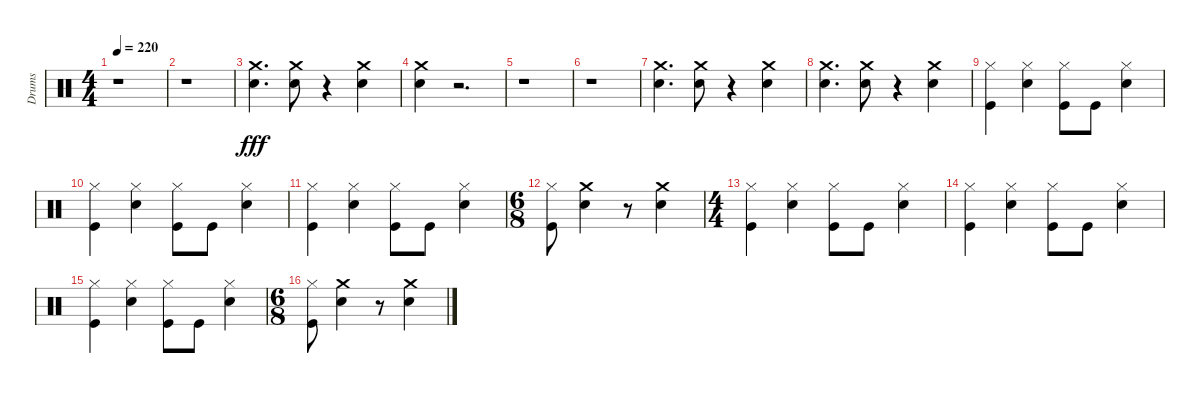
\track ("Drums" "Drums") {instrument percussion}
\staff {score}
\articulation defaults
\ts (4 4)
\tempo 220
\clef neutral
\ks c
r.1{dy fff} |
r.1 |
("Snare (hit) 2" "Crash medium (hit)").4{d} ("Snare (hit) 2" "Crash medium (hit)").8 r.4 ("Crash medium (hit)" "Snare (hit) 2").4 |
("Snare (hit) 2" "Crash medium (hit)").4 r.2{d} |
r.1 |
r.1 |
("Snare (hit) 2" "Crash medium (hit)").4{d} ("Snare (hit) 2" "Crash medium (hit)").8 r.4 ("Snare (hit) 2" "Crash medium (hit)").4 |
("Snare (hit) 2" "Crash medium (hit)").4{d} ("Snare (hit) 2" "Crash medium (hit)").8 r.4 ("Snare (hit) 2" "Crash medium (hit)").4 |
("Kick (hit)" "Hi-Hat (closed)").4 ("Hi-Hat (closed)" "Snare (hit) 2").4 ("Kick (hit)" "Hi-Hat (closed)").8 "Kick (hit)".8 ("Snare (hit) 2" "Hi-Hat (closed)").4 |
("Kick (hit)" "Hi-Hat (closed)").4 ("Snare (hit) 2" "Hi-Hat (closed)").4 ("Kick (hit)" "Hi-Hat (closed)").8 "Kick (hit)".8 ("Hi-Hat (closed)" "Snare (hit) 2").4 |
("Kick (hit)" "Hi-Hat (closed)").4 ("Snare (hit) 2" "Hi-Hat (closed)").4 ("Kick (hit)" "Hi-Hat (closed)").8 "Kick (hit)".8 ("Snare (hit) 2" "Hi-Hat (closed)").4 |
\ts (6 8)
("Hi-Hat (closed)" "Kick (hit)").8 ("Snare (hit) 2" "Crash medium (hit)").4 r.8 ("Snare (hit) 2" "Crash medium (hit)").4 |
\ts (4 4)
("Kick (hit)" "Hi-Hat (closed)").4 ("Snare (hit) 2" "Hi-Hat (closed)").4 ("Kick (hit)" "Hi-Hat (closed)").8 "Kick (hit)".8 ("Snare (hit) 2" "Hi-Hat (closed)").4 |
("Hi-Hat (closed)" "Kick (hit)").4 ("Snare (hit) 2" "Hi-Hat (closed)").4 ("Kick (hit)" "Hi-Hat (closed)").8 "Kick (hit)".8 ("Snare (hit) 2" "Hi-Hat (closed)").4 |
("Kick (hit)" "Hi-Hat (closed)").4 ("Snare (hit) 2" "Hi-Hat (closed)").4 ("Hi-Hat (closed)" "Kick (hit)").8 "Kick (hit)".8 ("Snare (hit) 2" "Hi-Hat (closed)").4 |
\ts (6 8)
("Hi-Hat (closed)" "Kick (hit)").8 ("Snare (hit) 2" "Crash medium (hit)").4 r.8 ("Snare (hit) 2" "Crash medium (hit)").4
